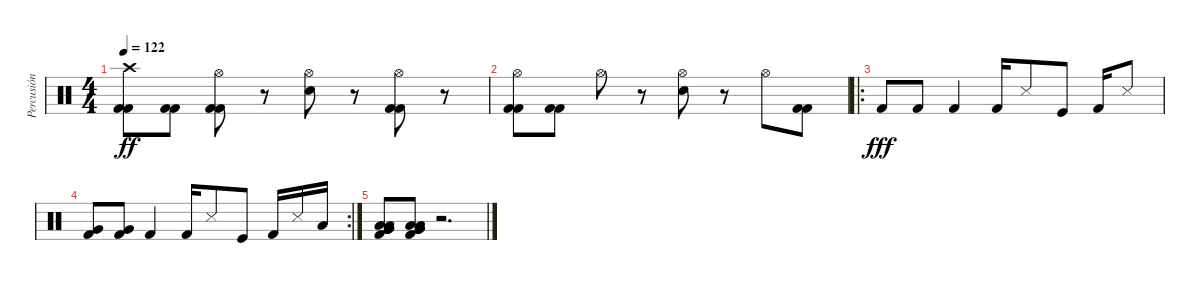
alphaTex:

\track ("Percusión" "Percusión") {instrument percussion}
\staff {score}
\articulation defaults
\ts (4 4)
\tempo 122
\clef neutral
\ks c
("Crash high (hit)" "Kick (hit) 2" "Kick (hit) 2").8{dy ff} ("Kick (hit) 2" "Kick (hit) 2").8 ("Hi-Hat (open)" "Kick (hit) 2" "Kick (hit) 2").8 r.8 ("Hi-Hat (open)" "Snare (hit) 2").8 r.8 ("Hi-Hat (open)" "Kick (hit) 2" "Kick (hit) 2").8 r.8 |
("Hi-Hat (open)" "Kick (hit) 2" "Kick (hit) 2").8 ("Kick (hit) 2" "Kick (hit) 2").8 "Hi-Hat (open)".8 r.8 ("Hi-Hat (open)" "Snare (hit) 2").8 r.8 "Hi-Hat (open)".8 ("Kick (hit) 2" "Kick (hit) 2").8 |
\ro "Kick (hit) 2".8{dy fff} "Kick (hit) 2".8 "Kick (hit) 2".4 "Kick (hit) 2".16 "Snare (side stick) 3".8 "Kick (hit)".8 "Kick (hit) 2".16 "Snare (side stick) 3".8
|
\rc 2
("Very Low Tom (hit)" "Kick (hit) 2").8 ("Very Low Tom (hit)" "Kick (hit) 2").8 "Kick (hit) 2".4 "Kick (hit) 2".16 "Snare (side stick) 3".8 "Kick (hit)".8 "Kick (hit) 2".16 "Snare (side stick) 3".16 "Low Tom (hit)".16 |
("Very Low Tom (hit)" "Low Floor Tom (hit)" "Low Floor Tom (hit)" "Very Low Tom (hit)" "Very Low Tom (hit)" "Kick (hit) 2").8{volume 16} ("Very Low Tom (hit)" "Low Floor Tom (hit)" "Low Floor Tom (hit)" "Very Low Tom (hit)" "Very Low Tom (hit)" "Kick (hit) 2").8 r.2{d}
